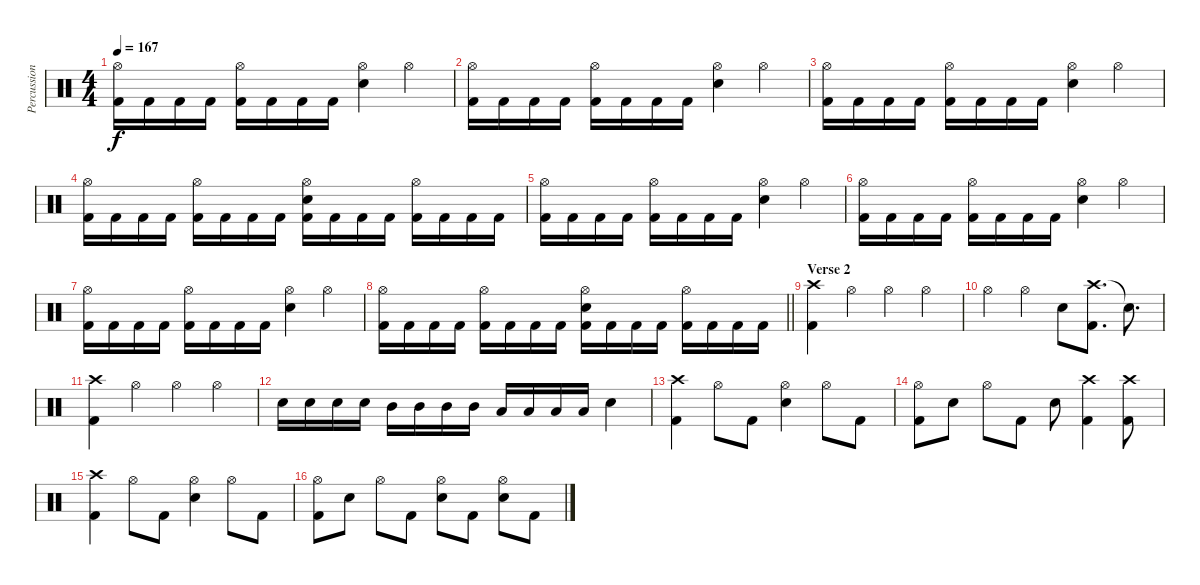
\track ("Percussion" "Percussion") {instrument percussion}
\staff {score}
\articulation defaults
\ts (4 4)
\tempo 167
\clef neutral
\ks c
("Hi-Hat (open)" "Kick (hit) 2").16{dy f} "Kick (hit) 2".16 "Kick (hit) 2".16 "Kick (hit) 2".16 ("Hi-Hat (open)" "Kick (hit) 2").16 "Kick (hit) 2".16 "Kick (hit) 2".16 "Kick (hit) 2".16 ("Hi-Hat (open)" "Snare (hit) 2").4 "Hi-Hat (open)".4 |
("Hi-Hat (open)" "Kick (hit) 2").16 "Kick (hit) 2".16 "Kick (hit) 2".16 "Kick (hit) 2".16 ("Hi-Hat (open)" "Kick (hit) 2").16 "Kick (hit) 2".16 "Kick (hit) 2".16 "Kick (hit) 2".16 ("Hi-Hat (open)" "Snare (hit) 2").4 "Hi-Hat (open)".4 |
("Hi-Hat (open)" "Kick (hit) 2").16 "Kick (hit) 2".16 "Kick (hit) 2".16 "Kick (hit) 2".16 ("Hi-Hat (open)" "Kick (hit) 2").16 "Kick (hit) 2".16 "Kick (hit) 2".16 "Kick (hit) 2".16 ("Hi-Hat (open)" "Snare (hit) 2").4 "Hi-Hat (open)".4 |
("Hi-Hat (open)" "Kick (hit) 2").16 "Kick (hit) 2".16 "Kick (hit) 2".16 "Kick (hit) 2".16 ("Hi-Hat (open)" "Kick (hit) 2").16 "Kick (hit) 2".16 "Kick (hit) 2".16 "Kick (hit) 2".16 ("Hi-Hat (open)" "Snare (hit) 2" "Kick (hit) 2").16 "Kick (hit) 2".16 "Kick (hit) 2".16 "Kick (hit) 2".16 ("Hi-Hat (open)" "Kick (hit) 2").16 "Kick (hit) 2".16 "Kick (hit) 2".16 "Kick (hit) 2".16 |
("Hi-Hat (open)" "Kick (hit) 2").16 "Kick (hit) 2".16 "Kick (hit) 2".16 "Kick (hit) 2".16 ("Hi-Hat (open)" "Kick (hit) 2").16 "Kick (hit) 2".16 "Kick (hit) 2".16 "Kick (hit) 2".16 ("Hi-Hat (open)" "Snare (hit) 2").4 "Hi-Hat (open)".4 |
("Hi-Hat (open)" "Kick (hit) 2").16 "Kick (hit) 2".16 "Kick (hit) 2".16 "Kick (hit) 2".16 ("Hi-Hat (open)" "Kick (hit) 2").16 "Kick (hit) 2".16 "Kick (hit) 2".16 "Kick (hit) 2".16 ("Hi-Hat (open)" "Snare (hit) 2").4 "Hi-Hat (open)".4 |
("Hi-Hat (open)" "Kick (hit) 2").16 "Kick (hit) 2".16 "Kick (hit) 2".16 "Kick (hit) 2".16 ("Hi-Hat (open)" "Kick (hit) 2").16 "Kick (hit) 2".16 "Kick (hit) 2".16 "Kick (hit) 2".16 ("Hi-Hat (open)" "Snare (hit) 2").4 "Hi-Hat (open)".4 |
\barLineRight lightlight
("Hi-Hat (open)" "Kick (hit) 2").16 "Kick (hit) 2".16 "Kick (hit) 2".16 "Kick (hit) 2".16 ("Hi-Hat (open)" "Kick (hit) 2").16 "Kick (hit) 2".16 "Kick (hit) 2".16 "Kick (hit) 2".16 ("Hi-Hat (open)" "Snare (hit) 2" "Kick (hit) 2").16 "Kick (hit) 2".16 "Kick (hit) 2".16 "Kick (hit) 2".16 ("Hi-Hat (open)" "Kick (hit) 2").16 "Kick (hit) 2".16 "Kick (hit) 2".16 "Kick (hit) 2".16 |
\section ("" "Verse 2")
("Crash high (hit)" "Kick (hit) 2").4 "Hi-Hat (open)".4 "Hi-Hat (open)".4 "Hi-Hat (open)".4 |
"Hi-Hat (open)".4 "Hi-Hat (open)".4 "Snare (hit) 2".8 ("Crash high (hit)" "Kick (hit) 2").8{d} "Snare (hit)"{t}.8{d} |
("Crash high (hit)" "Kick (hit) 2").4 "Hi-Hat (open)".4 "Hi-Hat (open)".4 "Hi-Hat (open)".4 |
"Snare (hit) 2".16 "Snare (hit) 2".16 "Snare (hit) 2".16 "Snare (hit) 2".16 "Mid Tom (hit)".16 "Mid Tom (hit)".16 "Mid Tom (hit)".16 "Mid Tom (hit)".16 "Low Tom (hit)".16 "Low Tom (hit)".16 "Low Tom (hit)".16 "Low Tom (hit)".16 "Snare (hit) 2".4 |
("Crash high (hit)" "Kick (hit) 2").4 "Hi-Hat (open)".8 "Kick (hit) 2".8 ("Hi-Hat (open)" "Snare (hit) 2").4 "Hi-Hat (open)".8 "Kick (hit) 2".8 |
("Hi-Hat (open)" "Kick (hit) 2").8 "Snare (hit) 2".8 "Hi-Hat (open)".8 "Kick (hit) 2".8 "Snare (hit) 2".8 ("Crash high (hit)" "Kick (hit) 2").4 ("Crash high (hit)" "Kick (hit) 2").8 |
("Crash high (hit)" "Kick (hit) 2").4 "Hi-Hat (open)".8 "Kick (hit) 2".8 ("Hi-Hat (open)" "Snare (hit) 2").4 "Hi-Hat (open)".8 "Kick (hit) 2".8 |
("Hi-Hat (open)" "Kick (hit) 2").8 "Snare (hit) 2".8 "Hi-Hat (open)".8 "Kick (hit) 2".8 ("Hi-Hat (open)" "Snare (hit) 2").8 "Kick (hit) 2".8 ("Hi-Hat (open)" "Snare (hit) 2").8 "Kick (hit) 2".8
